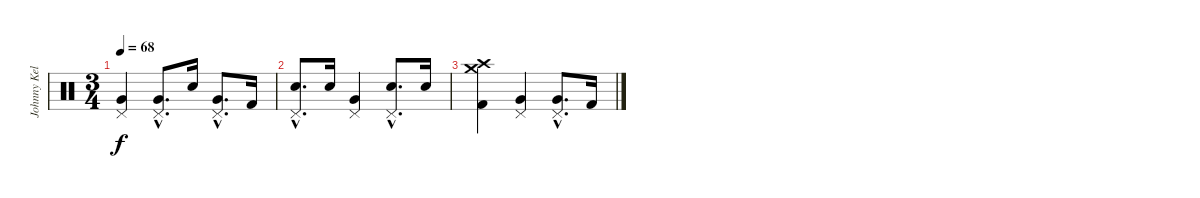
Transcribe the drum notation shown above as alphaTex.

\track ("Johnny Kelly" "Johnny Kel") {instrument percussion}
\staff {score}
\articulation defaults
\ts (3 4)
\tempo 68
\clef neutral
\ks c
("Pedal Hi-Hat (hit)" "Very Low Tom (hit)").4{dy f volume 0} ("Pedal Hi-Hat (hit)"{hac} "Very Low Tom (hit)"{hac}).8{d} "Electric Snare (hit)".16 ("Pedal Hi-Hat (hit)"{hac} "Very Low Tom (hit)"{hac}).8{d} "Kick (hit) 2".16 |
("Pedal Hi-Hat (hit)"{hac} "Electric Snare (hit)"{hac}).8{d} "Electric Snare (hit)".16 ("Pedal Hi-Hat (hit)" "Very Low Tom (hit)").4 ("Pedal Hi-Hat (hit)"{hac} "Electric Snare (hit)"{hac}).8{d} "Electric Snare (hit)".16 |
("Crash high (hit)" "Crash medium (hit)" "Kick (hit) 2").4 ("Pedal Hi-Hat (hit)" "Very Low Tom (hit)").4 ("Pedal Hi-Hat (hit)"{hac} "Very Low Tom (hit)"{hac}).8{d} "Kick (hit) 2".16
